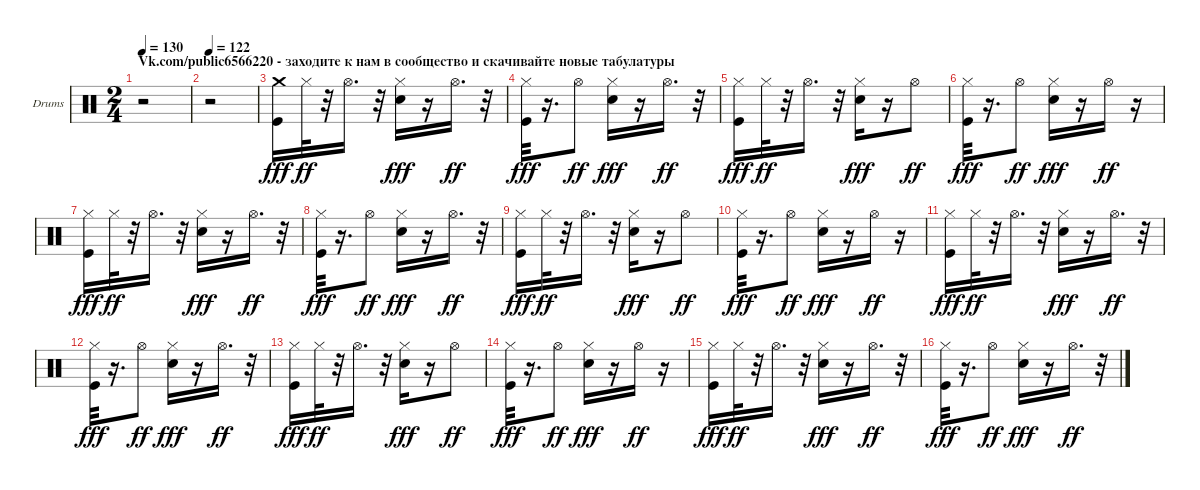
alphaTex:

\bracketExtendMode groupsimilarinstruments
\firstSystemTrackNameOrientation horizontal
\otherSystemsTrackNameOrientation horizontal
\track ("Ударные" "Drums") {instrument percussion}
\staff {score}
\articulation defaults
\ts (2 4)
\section ("" "Vk.com/public6566220 - заходите к нам в сообщество и скачивайте новые табулатуры")
\tempo 130
\clef neutral
\ks c
r.2{dy fff} |
\tempo 122
r.2 |
("Kick (hit)" "Crash medium (hit)").16 "Hi-Hat (closed)".32{dy ff} r.32 "Hi-Hat (open)".16{d} r.32 ("Snare (hit) 2" "Hi-Hat (closed)").16{dy fff} r.16 "Hi-Hat (open)".16{d dy ff} r.32 |
("Kick (hit)" "Hi-Hat (closed)").32{dy fff} r.16{d} "Hi-Hat (open)".8{dy ff} ("Snare (hit) 2" "Hi-Hat (closed)").16{dy fff} r.16 "Hi-Hat (open)".16{d dy ff} r.32 |
("Kick (hit)" "Hi-Hat (closed)").16{dy fff} "Hi-Hat (closed)".32{dy ff} r.32 "Hi-Hat (open)".16{d} r.32 ("Snare (hit) 2" "Hi-Hat (closed)").16{dy fff} r.16 "Hi-Hat (open)".8{dy ff} |
("Kick (hit)" "Hi-Hat (closed)").32{dy fff} r.16{d} "Hi-Hat (open)".8{dy ff} ("Snare (hit) 2" "Hi-Hat (closed)").16{dy fff} r.16 "Hi-Hat (open)".16{dy ff} r.16 |
("Kick (hit)" "Hi-Hat (closed)").16{dy fff} "Hi-Hat (closed)".32{dy ff} r.32 "Hi-Hat (open)".16{d} r.32 ("Snare (hit) 2" "Hi-Hat (closed)").16{dy fff} r.16 "Hi-Hat (open)".16{d dy ff} r.32 |
("Kick (hit)" "Hi-Hat (closed)").32{dy fff} r.16{d} "Hi-Hat (open)".8{dy ff} ("Snare (hit) 2" "Hi-Hat (closed)").16{dy fff} r.16 "Hi-Hat (open)".16{d dy ff} r.32 |
("Kick (hit)" "Hi-Hat (closed)").16{dy fff} "Hi-Hat (closed)".32{dy ff} r.32 "Hi-Hat (open)".16{d} r.32 ("Snare (hit) 2" "Hi-Hat (closed)").16{dy fff} r.16 "Hi-Hat (open)".8{dy ff} |
("Kick (hit)" "Hi-Hat (closed)").32{dy fff} r.16{d} "Hi-Hat (open)".8{dy ff} ("Snare (hit) 2" "Hi-Hat (closed)").16{dy fff} r.16 "Hi-Hat (open)".16{dy ff} r.16 |
("Kick (hit)" "Hi-Hat (closed)").16{dy fff} "Hi-Hat (closed)".32{dy ff} r.32 "Hi-Hat (open)".16{d} r.32 ("Snare (hit) 2" "Hi-Hat (closed)").16{dy fff} r.16 "Hi-Hat (open)".16{d dy ff} r.32 |
("Kick (hit)" "Hi-Hat (closed)").32{dy fff} r.16{d} "Hi-Hat (open)".8{dy ff} ("Snare (hit) 2" "Hi-Hat (closed)").16{dy fff} r.16 "Hi-Hat (open)".16{d dy ff} r.32 |
("Kick (hit)" "Hi-Hat (closed)").16{dy fff} "Hi-Hat (closed)".32{dy ff} r.32 "Hi-Hat (open)".16{d} r.32 ("Snare (hit) 2" "Hi-Hat (closed)").16{dy fff} r.16 "Hi-Hat (open)".8{dy ff} |
("Kick (hit)" "Hi-Hat (closed)").32{dy fff} r.16{d} "Hi-Hat (open)".8{dy ff} ("Snare (hit) 2" "Hi-Hat (closed)").16{dy fff} r.16 "Hi-Hat (open)".16{dy ff} r.16 |
("Kick (hit)" "Hi-Hat (closed)").16{dy fff} "Hi-Hat (closed)".32{dy ff} r.32 "Hi-Hat (open)".16{d} r.32 ("Snare (hit) 2" "Hi-Hat (closed)").16{dy fff} r.16 "Hi-Hat (open)".16{d dy ff} r.32 |
("Kick (hit)" "Hi-Hat (closed)").32{dy fff} r.16{d} "Hi-Hat (open)".8{dy ff} ("Snare (hit) 2" "Hi-Hat (closed)").16{dy fff} r.16 "Hi-Hat (open)".16{d dy ff} r.32
